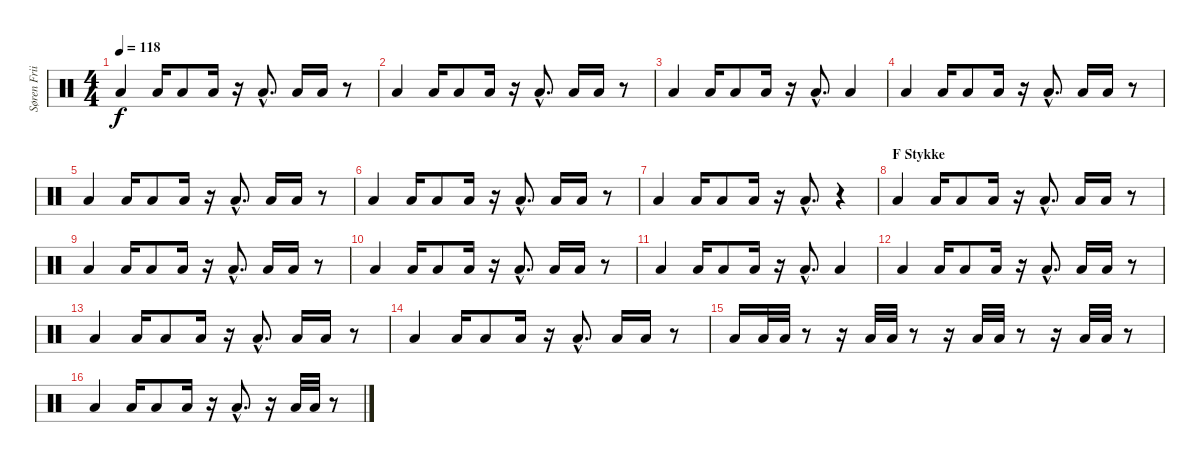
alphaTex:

\track ("Søren Friis (Drums)" "Søren Frii") {instrument percussion}
\staff {score}
\articulation defaults
\ts (4 4)
\tempo 118
\clef neutral
\ks c "Low Floor Tom (hit)".4{dy f} "Low Floor Tom (hit)".16 "Low Floor Tom (hit)".8 "Low Floor Tom (hit)".16
r.16 "Low Floor Tom (hit)"{hac}.8{d} "Low Floor Tom (hit)".16 "Low Floor Tom (hit)".16 r.8 |
"Low Floor Tom (hit)".4 "Low Floor Tom (hit)".16 "Low Floor Tom (hit)".8 "Low Floor Tom (hit)".16 r.16 "Low Floor Tom (hit)"{hac}.8{d} "Low Floor Tom (hit)".16 "Low Floor Tom (hit)".16 r.8 |
"Low Floor Tom (hit)".4 "Low Floor Tom (hit)".16 "Low Floor Tom (hit)".8 "Low Floor Tom (hit)".16 r.16 "Low Floor Tom (hit)"{hac}.8{d} "Low Floor Tom (hit)".4 |
"Low Floor Tom (hit)".4 "Low Floor Tom (hit)".16 "Low Floor Tom (hit)".8 "Low Floor Tom (hit)".16 r.16 "Low Floor Tom (hit)"{hac}.8{d} "Low Floor Tom (hit)".16 "Low Floor Tom (hit)".16 r.8 |
"Low Floor Tom (hit)".4 "Low Floor Tom (hit)".16 "Low Floor Tom (hit)".8 "Low Floor Tom (hit)".16 r.16 "Low Floor Tom (hit)"{hac}.8{d} "Low Floor Tom (hit)".16 "Low Floor Tom (hit)".16 r.8 |
"Low Floor Tom (hit)".4 "Low Floor Tom (hit)".16 "Low Floor Tom (hit)".8 "Low Floor Tom (hit)".16 r.16 "Low Floor Tom (hit)"{hac}.8{d} "Low Floor Tom (hit)".16 "Low Floor Tom (hit)".16 r.8 |
"Low Floor Tom (hit)".4 "Low Floor Tom (hit)".16 "Low Floor Tom (hit)".8 "Low Floor Tom (hit)".16 r.16 "Low Floor Tom (hit)"{hac}.8{d} r.4 |
\section ("" "F Stykke")
"Low Floor Tom (hit)".4 "Low Floor Tom (hit)".16 "Low Floor Tom (hit)".8 "Low Floor Tom (hit)".16 r.16 "Low Floor Tom (hit)"{hac}.8{d} "Low Floor Tom (hit)".16 "Low Floor Tom (hit)".16 r.8 |
"Low Floor Tom (hit)".4 "Low Floor Tom (hit)".16 "Low Floor Tom (hit)".8 "Low Floor Tom (hit)".16 r.16 "Low Floor Tom (hit)"{hac}.8{d} "Low Floor Tom (hit)".16 "Low Floor Tom (hit)".16 r.8 |
"Low Floor Tom (hit)".4 "Low Floor Tom (hit)".16 "Low Floor Tom (hit)".8 "Low Floor Tom (hit)".16 r.16 "Low Floor Tom (hit)"{hac}.8{d} "Low Floor Tom (hit)".16 "Low Floor Tom (hit)".16 r.8 |
"Low Floor Tom (hit)".4 "Low Floor Tom (hit)".16 "Low Floor Tom (hit)".8 "Low Floor Tom (hit)".16 r.16 "Low Floor Tom (hit)"{hac}.8{d} "Low Floor Tom (hit)".4 |
"Low Floor Tom (hit)".4 "Low Floor Tom (hit)".16 "Low Floor Tom (hit)".8 "Low Floor Tom (hit)".16 r.16 "Low Floor Tom (hit)"{hac}.8{d} "Low Floor Tom (hit)".16 "Low Floor Tom (hit)".16 r.8 |
"Low Floor Tom (hit)".4 "Low Floor Tom (hit)".16 "Low Floor Tom (hit)".8 "Low Floor Tom (hit)".16 r.16 "Low Floor Tom (hit)"{hac}.8{d} "Low Floor Tom (hit)".16 "Low Floor Tom (hit)".16 r.8 |
"Low Floor Tom (hit)".4 "Low Floor Tom (hit)".16 "Low Floor Tom (hit)".8 "Low Floor Tom (hit)".16 r.16 "Low Floor Tom (hit)"{hac}.8{d} "Low Floor Tom (hit)".16 "Low Floor Tom (hit)".16 r.8 |
"Low Floor Tom (hit)".16 "Low Floor Tom (hit)".32 "Low Floor Tom (hit)".32 r.8 r.16 "Low Floor Tom (hit)".32 "Low Floor Tom (hit)".32 r.8 r.16 "Low Floor Tom (hit)".32 "Low Floor Tom (hit)".32 r.8 r.16 "Low Floor Tom (hit)".32 "Low Floor Tom (hit)".32 r.8 |
"Low Floor Tom (hit)".4 "Low Floor Tom (hit)".16 "Low Floor Tom (hit)".8 "Low Floor Tom (hit)".16 r.16 "Low Floor Tom (hit)"{hac}.8{d} r.16 "Low Floor Tom (hit)".32 "Low Floor Tom (hit)".32 r.8
